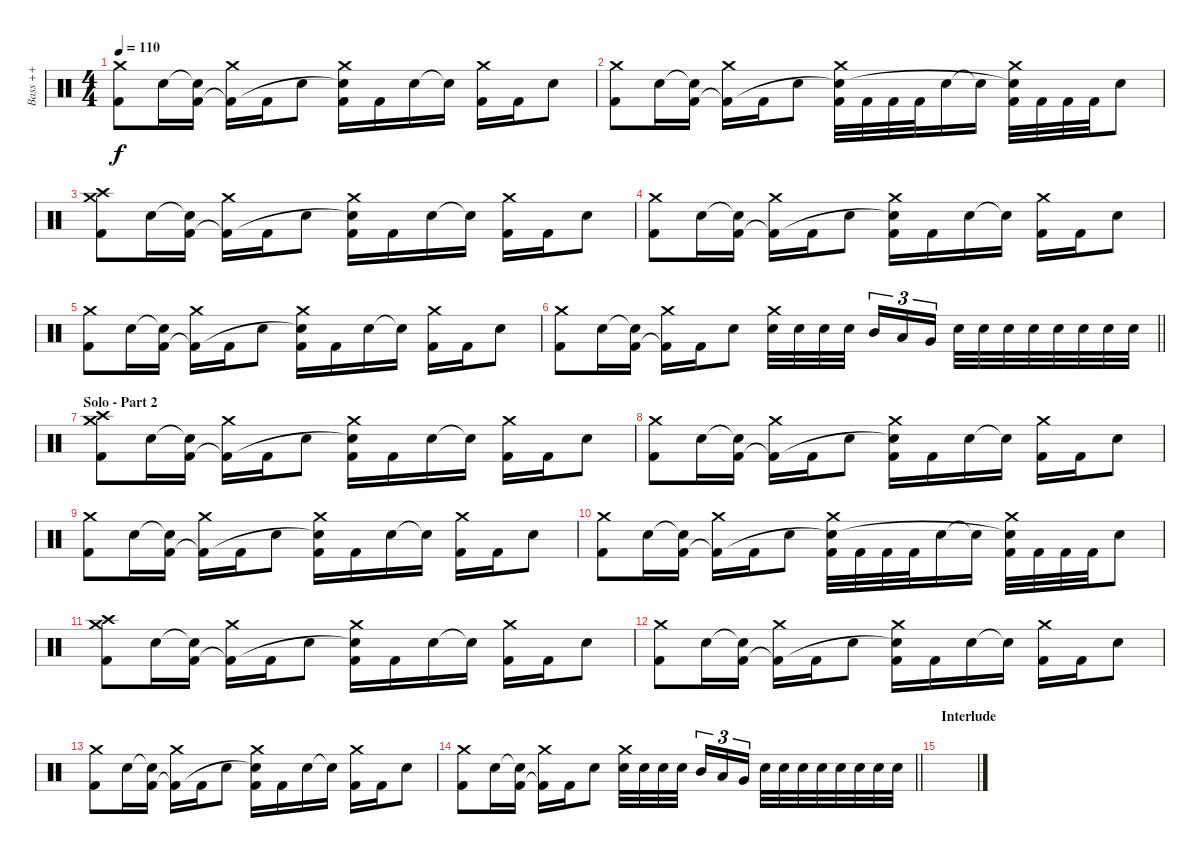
\track ("  Bass ++" "  Bass ++") {instrument percussion}
\staff {score}
\articulation defaults
\ts (4 4)
\tempo 110
\clef neutral
\ks c
("Crash medium (hit)" "Kick (hit) 2").8{dy f} "Snare (hit) 2".16 ("Snare (hit)"{t} "Kick (hit) 2").16 ("Crash medium (hit)" "Kick (hit) 2"{t}).16 "Kick (hit) 2".16 "Snare (hit) 2".8 ("Crash medium (hit)" "Snare (hit) 2"{t} "Kick (hit) 2").16 "Kick (hit) 2".16 "Snare (hit) 2".16 "Snare (hit) 2"{t}.16 ("Crash medium (hit)" "Kick (hit) 2").16 "Kick (hit) 2".16 "Snare (hit) 2".8 |
("Crash medium (hit)" "Kick (hit) 2").8 "Snare (hit) 2".16 ("Snare (hit)"{t} "Kick (hit) 2").16 ("Crash medium (hit)" "Kick (hit) 2"{t}).16 "Kick (hit) 2".16 "Snare (hit) 2".8 ("Crash medium (hit)" "Snare (hit) 2"{t} "Kick (hit) 2").32 "Kick (hit) 2".32 "Kick (hit) 2".32 "Kick (hit) 2".32 "Snare (hit) 2".16 "Snare (hit) 2"{t}.16 ("Crash medium (hit)" "Snare (hit) 2"{t} "Kick (hit) 2").32 "Kick (hit) 2".32 "Kick (hit) 2".32 "Kick (hit) 2".32 "Snare (hit) 2".8 |
("Crash medium (hit)" "Crash high (hit)" "Kick (hit) 2").8 "Snare (hit) 2".16 ("Snare (hit)"{t} "Kick (hit) 2").16 ("Crash medium (hit)" "Kick (hit) 2"{t}).16 "Kick (hit) 2".16 "Snare (hit) 2".8 ("Crash medium (hit)" "Snare (hit) 2"{t} "Kick (hit) 2").16 "Kick (hit) 2".16 "Snare (hit) 2".16 "Snare (hit) 2"{t}.16 ("Crash medium (hit)" "Kick (hit) 2").16 "Kick (hit) 2".16 "Snare (hit) 2".8 |
("Crash medium (hit)" "Kick (hit) 2").8 "Snare (hit) 2".16 ("Snare (hit)"{t} "Kick (hit) 2").16 ("Crash medium (hit)" "Kick (hit) 2"{t}).16 "Kick (hit) 2".16 "Snare (hit) 2".8 ("Crash medium (hit)" "Snare (hit) 2"{t} "Kick (hit) 2").16 "Kick (hit) 2".16 "Snare (hit) 2".16 "Snare (hit) 2"{t}.16 ("Crash medium (hit)" "Kick (hit) 2").16 "Kick (hit) 2".16 "Snare (hit) 2".8 |
("Crash medium (hit)" "Kick (hit) 2").8 "Snare (hit) 2".16 ("Snare (hit)"{t} "Kick (hit) 2").16 ("Crash medium (hit)" "Kick (hit) 2"{t}).16 "Kick (hit) 2".16 "Snare (hit) 2".8 ("Crash medium (hit)" "Snare (hit) 2"{t} "Kick (hit) 2").16 "Kick (hit) 2".16 "Snare (hit) 2".16 "Snare (hit) 2"{t}.16 ("Crash medium (hit)" "Kick (hit) 2").16 "Kick (hit) 2".16 "Snare (hit) 2".8 |
\barLineRight lightlight
("Crash medium (hit)" "Kick (hit) 2").8 "Snare (hit) 2".16 ("Snare (hit)"{t} "Kick (hit) 2").16 ("Crash medium (hit)" "Kick (hit) 2"{t}).16 "Kick (hit) 2".16 "Snare (hit) 2".8 ("Crash medium (hit)" "Electric Snare (hit)").32 "Electric Snare (hit)".32 "Electric Snare (hit)".32 "Electric Snare (hit)".32{beam splitsecondary} "Mid Tom (hit)".16{tu (3 2)} "Low Tom (hit)".16{tu (3 2)} "Very Low Tom (hit)".16{tu (3 2)} "Electric Snare (hit)".32 "Electric Snare (hit)".32 "Electric Snare (hit)".32 "Electric Snare (hit)".32 "Electric Snare (hit)".32 "Electric Snare (hit)".32 "Electric Snare (hit)".32 "Electric Snare (hit)".32 |
\section ("" "Solo - Part 2")
("Crash medium (hit)" "Crash high (hit)" "Kick (hit) 2").8 "Snare (hit) 2".16 ("Snare (hit)"{t} "Kick (hit) 2").16 ("Crash medium (hit)" "Kick (hit) 2"{t}).16 "Kick (hit) 2".16 "Snare (hit) 2".8 ("Crash medium (hit)" "Snare (hit) 2"{t} "Kick (hit) 2").16 "Kick (hit) 2".16 "Snare (hit) 2".16 "Snare (hit) 2"{t}.16 ("Crash medium (hit)" "Kick (hit) 2").16 "Kick (hit) 2".16 "Snare (hit) 2".8 |
("Crash medium (hit)" "Kick (hit) 2").8 "Snare (hit) 2".16 ("Snare (hit)"{t} "Kick (hit) 2").16 ("Crash medium (hit)" "Kick (hit) 2"{t}).16 "Kick (hit) 2".16 "Snare (hit) 2".8 ("Crash medium (hit)" "Snare (hit) 2"{t} "Kick (hit) 2").16 "Kick (hit) 2".16 "Snare (hit) 2".16 "Snare (hit) 2"{t}.16 ("Crash medium (hit)" "Kick (hit) 2").16 "Kick (hit) 2".16 "Snare (hit) 2".8 |
("Crash medium (hit)" "Kick (hit) 2").8 "Snare (hit) 2".16 ("Snare (hit)"{t} "Kick (hit) 2").16 ("Crash medium (hit)" "Kick (hit) 2"{t}).16 "Kick (hit) 2".16 "Snare (hit) 2".8 ("Crash medium (hit)" "Snare (hit) 2"{t} "Kick (hit) 2").16 "Kick (hit) 2".16 "Snare (hit) 2".16 "Snare (hit) 2"{t}.16 ("Crash medium (hit)" "Kick (hit) 2").16 "Kick (hit) 2".16 "Snare (hit) 2".8 |
("Crash medium (hit)" "Kick (hit) 2").8 "Snare (hit) 2".16 ("Snare (hit)"{t} "Kick (hit) 2").16 ("Crash medium (hit)" "Kick (hit) 2"{t}).16 "Kick (hit) 2".16 "Snare (hit) 2".8 ("Crash medium (hit)" "Snare (hit) 2"{t} "Kick (hit) 2").32 "Kick (hit) 2".32 "Kick (hit) 2".32 "Kick (hit) 2".32 "Snare (hit) 2".16 "Snare (hit) 2"{t}.16 ("Crash medium (hit)" "Snare (hit) 2"{t} "Kick (hit) 2").32 "Kick (hit) 2".32 "Kick (hit) 2".32 "Kick (hit) 2".32 "Snare (hit) 2".8 |
("Crash medium (hit)" "Crash high (hit)" "Kick (hit) 2").8 "Snare (hit) 2".16 ("Snare (hit)"{t} "Kick (hit) 2").16 ("Crash medium (hit)" "Kick (hit) 2"{t}).16 "Kick (hit) 2".16 "Snare (hit) 2".8 ("Crash medium (hit)" "Snare (hit) 2"{t} "Kick (hit) 2").16 "Kick (hit) 2".16 "Snare (hit) 2".16 "Snare (hit) 2"{t}.16 ("Crash medium (hit)" "Kick (hit) 2").16 "Kick (hit) 2".16 "Snare (hit) 2".8 |
("Crash medium (hit)" "Kick (hit) 2").8 "Snare (hit) 2".16 ("Snare (hit)"{t} "Kick (hit) 2").16 ("Crash medium (hit)" "Kick (hit) 2"{t}).16 "Kick (hit) 2".16 "Snare (hit) 2".8 ("Crash medium (hit)" "Snare (hit) 2"{t} "Kick (hit) 2").16 "Kick (hit) 2".16 "Snare (hit) 2".16 "Snare (hit) 2"{t}.16 ("Crash medium (hit)" "Kick (hit) 2").16 "Kick (hit) 2".16 "Snare (hit) 2".8 |
("Crash medium (hit)" "Kick (hit) 2").8 "Snare (hit) 2".16 ("Snare (hit)"{t} "Kick (hit) 2").16 ("Crash medium (hit)" "Kick (hit) 2"{t}).16 "Kick (hit) 2".16 "Snare (hit) 2".8 ("Crash medium (hit)" "Snare (hit) 2"{t} "Kick (hit) 2").16 "Kick (hit) 2".16 "Snare (hit) 2".16 "Snare (hit) 2"{t}.16 ("Crash medium (hit)" "Kick (hit) 2").16 "Kick (hit) 2".16 "Snare (hit) 2".8 |
\barLineRight lightlight
("Crash medium (hit)" "Kick (hit) 2").8 "Snare (hit) 2".16 ("Snare (hit)"{t} "Kick (hit) 2").16 ("Crash medium (hit)" "Kick (hit) 2"{t}).16 "Kick (hit) 2".16 "Snare (hit) 2".8 ("Crash medium (hit)" "Electric Snare (hit)").32 "Electric Snare (hit)".32 "Electric Snare (hit)".32 "Electric Snare (hit)".32{beam splitsecondary} "Mid Tom (hit)".16{tu (3 2)} "Low Tom (hit)".16{tu (3 2)} "Very Low Tom (hit)".16{tu (3 2)} "Electric Snare (hit)".32 "Electric Snare (hit)".32 "Electric Snare (hit)".32 "Electric Snare (hit)".32 "Electric Snare (hit)".32 "Electric Snare (hit)".32 "Electric Snare (hit)".32 "Electric Snare (hit)".32 |
\section ("" "Interlude")
